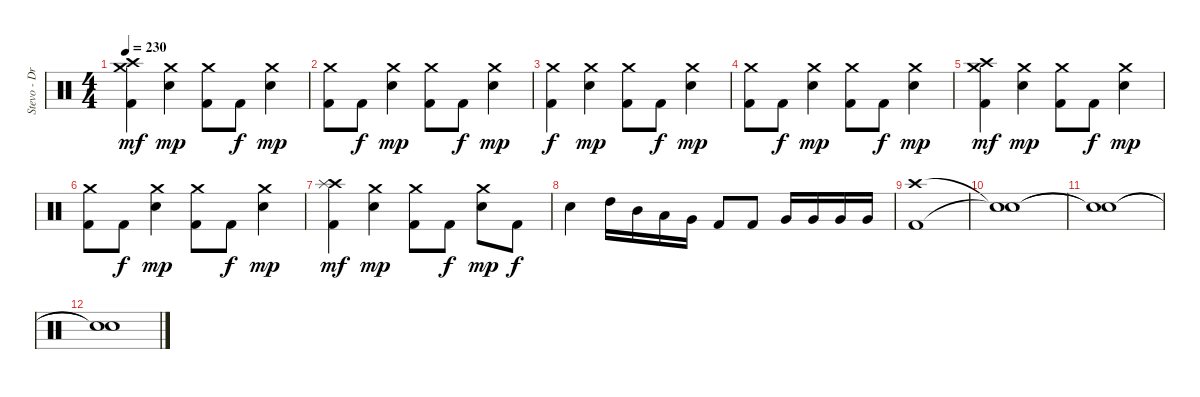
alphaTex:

\track ("Stevo - Drums" "Stevo - Dr") {instrument percussion}
\staff {score}
\articulation defaults
\ts (4 4)
\tempo 230
\clef neutral
\ks c
("Crash high (hit)" "Crash medium (hit)" "Kick (hit) 2").4{dy mf} ("Crash medium (hit)" "Electric Snare (hit)").4{dy mp} ("Crash medium (hit)" "Kick (hit) 2").8 "Kick (hit) 2".8{dy f} ("Crash medium (hit)" "Electric Snare (hit)").4{dy mp} |
("Crash medium (hit)" "Kick (hit) 2").8 "Kick (hit) 2".8{dy f} ("Crash medium (hit)" "Electric Snare (hit)").4{dy mp} ("Crash medium (hit)" "Kick (hit) 2").8 "Kick (hit) 2".8{dy f} ("Crash medium (hit)" "Electric Snare (hit)").4{dy mp} |
("Crash medium (hit)" "Kick (hit) 2").4{dy f} ("Crash medium (hit)" "Electric Snare (hit)").4{dy mp} ("Crash medium (hit)" "Kick (hit) 2").8 "Kick (hit) 2".8{dy f} ("Crash medium (hit)" "Electric Snare (hit)").4{dy mp} |
("Crash medium (hit)" "Kick (hit) 2").8 "Kick (hit) 2".8{dy f} ("Crash medium (hit)" "Electric Snare (hit)").4{dy mp} ("Crash medium (hit)" "Kick (hit) 2").8 "Kick (hit) 2".8{dy f} ("Crash medium (hit)" "Electric Snare (hit)").4{dy mp} |
("Crash high (hit)" "Crash medium (hit)" "Kick (hit) 2").4{dy mf} ("Crash medium (hit)" "Electric Snare (hit)").4{dy mp} ("Crash medium (hit)" "Kick (hit) 2").8 "Kick (hit) 2".8{dy f} ("Crash medium (hit)" "Electric Snare (hit)").4{dy mp} |
("Crash medium (hit)" "Kick (hit) 2").8 "Kick (hit) 2".8{dy f} ("Crash medium (hit)" "Electric Snare (hit)").4{dy mp} ("Crash medium (hit)" "Kick (hit) 2").8 "Kick (hit) 2".8{dy f} ("Crash medium (hit)" "Electric Snare (hit)").4{dy mp} |
("Crash high (hit)" "Splash (hit)" "Kick (hit) 2").4{dy mf} ("Crash medium (hit)" "Electric Snare (hit)").4{dy mp} ("Crash medium (hit)" "Kick (hit) 2").8 "Kick (hit) 2".8{dy f} ("Crash medium (hit)" "Electric Snare (hit)").8{dy mp} "Kick (hit) 2".8{dy f} |
"Electric Snare (hit)".4 "High Tom (hit)".16 "Mid Tom (hit)".16 "Low Tom (hit)".16 "Very Low Tom (hit)".16 "Kick (hit) 2".8 "Kick (hit) 2".8 "Very Low Tom (hit)".16 "Very Low Tom (hit)".16 "Very Low Tom (hit)".16 "Very Low Tom (hit)".16 |
("Crash high (hit)" "Kick (hit) 2").1 |
("Snare (hit)"{t} "Snare (hit)"{t}).1 |
("Snare (hit)"{t} "Snare (hit)"{t}).1 |
("Snare (hit)"{t} "Snare (hit)"{t}).1
